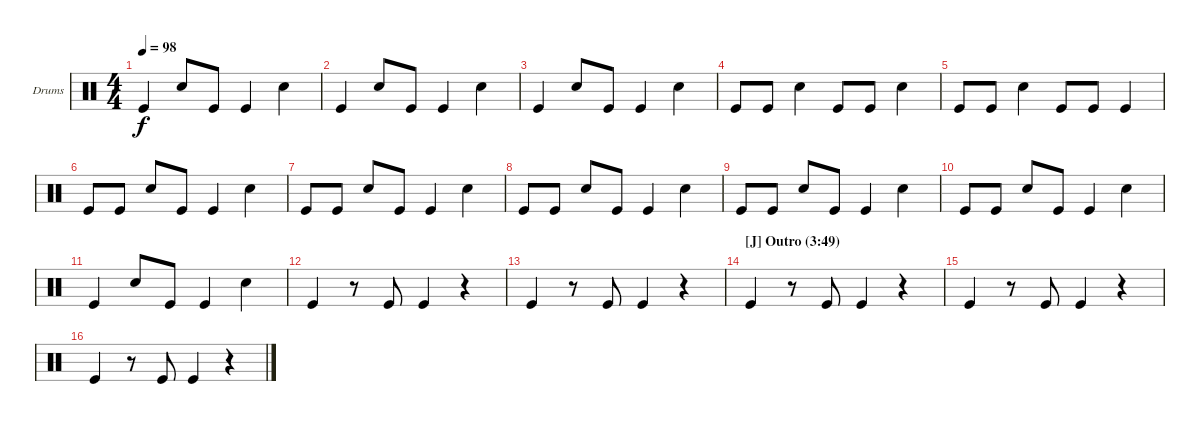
\defaultSystemsLayout 4
\bracketExtendMode groupsimilarinstruments
\firstSystemTrackNameOrientation horizontal
\otherSystemsTrackNameOrientation horizontal
\track ("Drums" "Drums") {instrument percussion}
\staff {score}
\articulation defaults
\ts (4 4)
\tempo 98
\clef neutral
\scale
1.07945
\ks c "Kick (hit)".4{dy f} "Snare (hit) 2".8 "Kick (hit)".8 "Kick (hit)".4 "Snare (hit) 2".4
|
\scale
0.973518 "Kick (hit)".4 "Snare (hit) 2".8 "Kick (hit)".8 "Kick (hit)".4 "Snare (hit) 2".4 |
\scale
0.973518 "Kick (hit)".4 "Snare (hit) 2".8 "Kick (hit)".8 "Kick (hit)".4 "Snare (hit) 2".4 |
\scale
0.973518 "Kick (hit)".8 "Kick (hit)".8 "Snare (hit) 2".4 "Kick (hit)".8 "Kick (hit)".8 "Snare (hit) 2".4 |
\scale
1.07945 "Kick (hit)".8 "Kick (hit)".8 "Snare (hit) 2".4 "Kick (hit)".8 "Kick (hit)".8 "Kick (hit)".4 |
\scale
0.973518 "Kick (hit)".8 "Kick (hit)".8 "Snare (hit) 2".8 "Kick (hit)".8 "Kick (hit)".4 "Snare (hit) 2".4 |
\scale
0.973518 "Kick (hit)".8 "Kick (hit)".8 "Snare (hit) 2".8 "Kick (hit)".8 "Kick (hit)".4 "Snare (hit) 2".4 |
\scale
0.973518 "Kick (hit)".8 "Kick (hit)".8 "Snare (hit) 2".8 "Kick (hit)".8 "Kick (hit)".4 "Snare (hit) 2".4 |
\scale
1.07945 "Kick (hit)".8 "Kick (hit)".8 "Snare (hit) 2".8 "Kick (hit)".8 "Kick (hit)".4 "Snare (hit) 2".4 |
\scale
0.973518 "Kick (hit)".8 "Kick (hit)".8 "Snare (hit) 2".8 "Kick (hit)".8 "Kick (hit)".4 "Snare (hit) 2".4 |
\scale
0.973518 "Kick (hit)".4 "Snare (hit) 2".8 "Kick (hit)".8 "Kick (hit)".4 "Snare (hit) 2".4 |
\scale
0.973518 "Kick (hit)".4 r.8 "Kick (hit)".8 "Kick (hit)".4 r.4 |
\scale
1.07945 "Kick (hit)".4 r.8 "Kick (hit)".8 "Kick (hit)".4 r.4 |
\section ("J" "Outro (3:49)")
\scale
0.973518 "Kick (hit)".4 r.8 "Kick (hit)".8 "Kick (hit)".4 r.4 |
\scale
0.973518 "Kick (hit)".4 r.8 "Kick (hit)".8 "Kick (hit)".4 r.4 |
\scale
0.973518 "Kick (hit)".4 r.8 "Kick (hit)".8 "Kick (hit)".4 r.4
